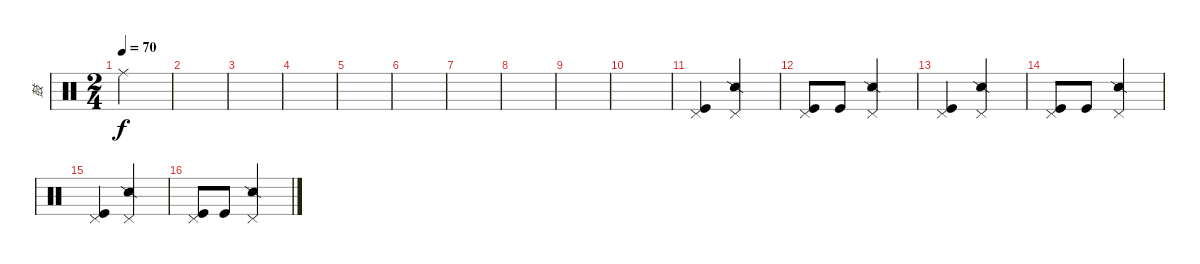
\track ("鼓" "鼓") {instrument percussion}
\staff {score}
\articulation defaults
\ts (2 4)
\tempo 70
\clef neutral
\ks c "Ride (middle)".2{dy f}
|
|
|
|
|
|
|
|
|
|
("Pedal Hi-Hat (hit)" "Kick (hit)").4 ("Pedal Hi-Hat (hit)" "Snare (side stick) 2").4 |
("Pedal Hi-Hat (hit)" "Kick (hit)").8 "Kick (hit)".8 ("Pedal Hi-Hat (hit)" "Snare (side stick) 2").4 |
("Pedal Hi-Hat (hit)" "Kick (hit)").4 ("Pedal Hi-Hat (hit)" "Snare (side stick) 2").4 |
("Pedal Hi-Hat (hit)" "Kick (hit)").8 "Kick (hit)".8 ("Pedal Hi-Hat (hit)" "Snare (side stick) 2").4 |
("Pedal Hi-Hat (hit)" "Kick (hit)").4 ("Pedal Hi-Hat (hit)" "Snare (side stick) 2").4 |
("Pedal Hi-Hat (hit)" "Kick (hit)").8 "Kick (hit)".8 ("Pedal Hi-Hat (hit)" "Snare (side stick) 2").4
